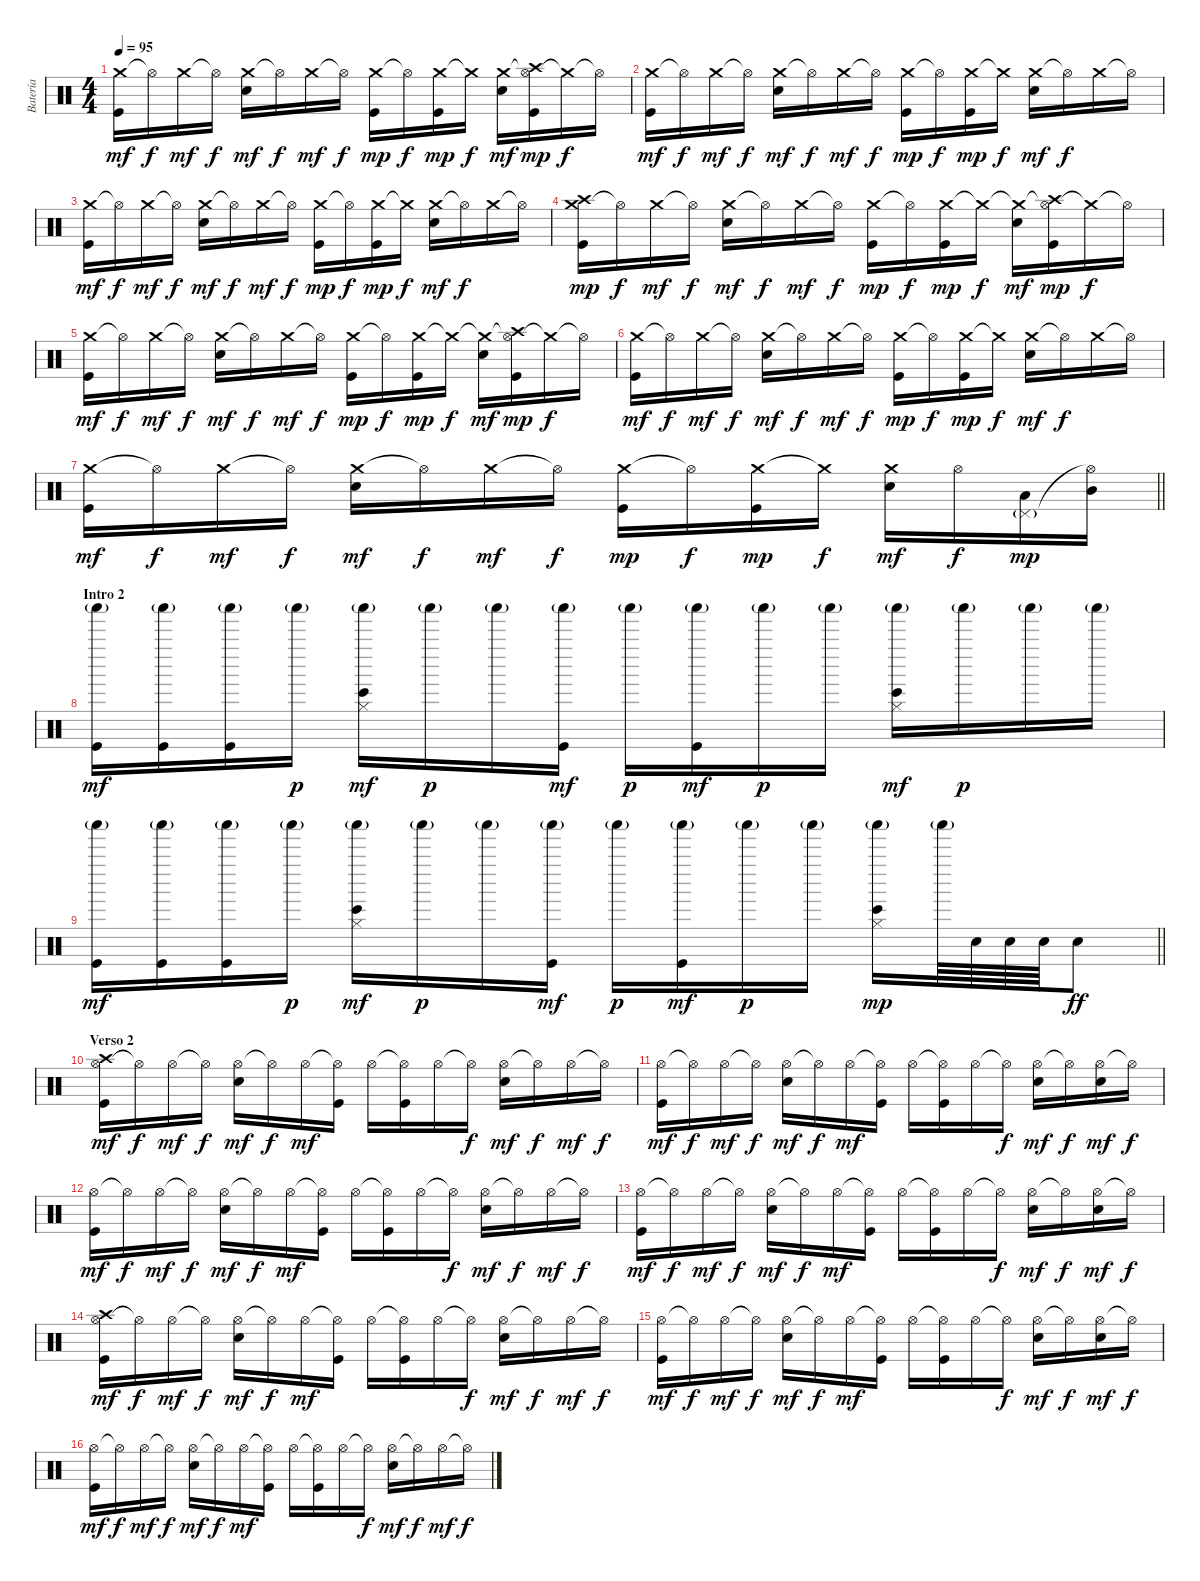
\track ("Batería" "Batería") {instrument percussion}
\staff {score}
\articulation defaults
\ts (4 4)
\tempo 95
\clef neutral
\ks c
("Crash medium (hit)" "Kick (hit)").16{dy mf} "Hi-Hat (open)"{t}.16{dy f} "Crash medium (hit)".16{dy mf} "Hi-Hat (open)"{t}.16{dy f} ("Crash medium (hit)" "Electric Snare (hit)").16{dy mf} "Hi-Hat (open)"{t}.16{dy f} "Crash medium (hit)".16{dy mf} "Hi-Hat (open)"{t}.16{dy f} ("Crash medium (hit)" "Kick (hit)").16{dy mp} "Hi-Hat (open)"{t}.16{dy f} ("Crash medium (hit)" "Kick (hit)").16{dy mp} "Crash medium (hit)"{t}.16{dy f} ("Crash medium (hit)" "Electric Snare (hit)").16{dy mf} ("Hi-Hat (open)"{t} "Kick (hit)" "Crash high (hit)").16{dy mp} "Crash medium (hit)"{t}.16{dy f} "Hi-Hat (open)"{t}.16 |
("Crash medium (hit)" "Kick (hit)").16{dy mf} "Hi-Hat (open)"{t}.16{dy f} "Crash medium (hit)".16{dy mf} "Hi-Hat (open)"{t}.16{dy f} ("Crash medium (hit)" "Electric Snare (hit)").16{dy mf} "Hi-Hat (open)"{t}.16{dy f} "Crash medium (hit)".16{dy mf} "Hi-Hat (open)"{t}.16{dy f} ("Crash medium (hit)" "Kick (hit)").16{dy mp} "Hi-Hat (open)"{t}.16{dy f} ("Crash medium (hit)" "Kick (hit)").16{dy mp} "Crash medium (hit)"{t}.16{dy f} ("Crash medium (hit)" "Electric Snare (hit)").16{dy mf} "Hi-Hat (open)"{t}.16{dy f} "Crash medium (hit)".16 "Hi-Hat (open)"{t}.16 |
("Crash medium (hit)" "Kick (hit)").16{dy mf} "Hi-Hat (open)"{t}.16{dy f} "Crash medium (hit)".16{dy mf} "Hi-Hat (open)"{t}.16{dy f} ("Crash medium (hit)" "Electric Snare (hit)").16{dy mf} "Hi-Hat (open)"{t}.16{dy f} "Crash medium (hit)".16{dy mf} "Hi-Hat (open)"{t}.16{dy f} ("Crash medium (hit)" "Kick (hit)").16{dy mp} "Hi-Hat (open)"{t}.16{dy f} ("Crash medium (hit)" "Kick (hit)").16{dy mp} "Crash medium (hit)"{t}.16{dy f} ("Crash medium (hit)" "Electric Snare (hit)").16{dy mf} "Hi-Hat (open)"{t}.16{dy f} "Crash medium (hit)".16 "Hi-Hat (open)"{t}.16 |
("Crash medium (hit)" "Kick (hit)" "Crash high (hit)").16{dy mp} "Hi-Hat (open)"{t}.16{dy f} "Crash medium (hit)".16{dy mf} "Hi-Hat (open)"{t}.16{dy f} ("Crash medium (hit)" "Electric Snare (hit)").16{dy mf} "Hi-Hat (open)"{t}.16{dy f} "Crash medium (hit)".16{dy mf} "Hi-Hat (open)"{t}.16{dy f} ("Crash medium (hit)" "Kick (hit)").16{dy mp} "Hi-Hat (open)"{t}.16{dy f} ("Crash medium (hit)" "Kick (hit)").16{dy mp} "Crash medium (hit)"{t}.16{dy f} ("Crash medium (hit)"{t} "Electric Snare (hit)").16{dy mf} ("Hi-Hat (open)"{t} "Kick (hit)" "Crash high (hit)").16{dy mp} "Crash medium (hit)"{t}.16{dy f} "Hi-Hat (open)"{t}.16 |
("Crash medium (hit)" "Kick (hit)").16{dy mf} "Hi-Hat (open)"{t}.16{dy f} "Crash medium (hit)".16{dy mf} "Hi-Hat (open)"{t}.16{dy f} ("Crash medium (hit)" "Electric Snare (hit)").16{dy mf} "Hi-Hat (open)"{t}.16{dy f} "Crash medium (hit)".16{dy mf} "Hi-Hat (open)"{t}.16{dy f} ("Crash medium (hit)" "Kick (hit)").16{dy mp} "Hi-Hat (open)"{t}.16{dy f} ("Crash medium (hit)" "Kick (hit)").16{dy mp} "Crash medium (hit)"{t}.16{dy f} ("Crash medium (hit)"{t} "Electric Snare (hit)").16{dy mf} ("Hi-Hat (open)"{t} "Kick (hit)" "Crash high (hit)").16{dy mp} "Crash medium (hit)"{t}.16{dy f} "Hi-Hat (open)"{t}.16 |
("Crash medium (hit)" "Kick (hit)").16{dy mf} "Hi-Hat (open)"{t}.16{dy f} "Crash medium (hit)".16{dy mf} "Hi-Hat (open)"{t}.16{dy f} ("Crash medium (hit)" "Electric Snare (hit)").16{dy mf} "Hi-Hat (open)"{t}.16{dy f} "Crash medium (hit)".16{dy mf} "Hi-Hat (open)"{t}.16{dy f} ("Crash medium (hit)" "Kick (hit)").16{dy mp} "Hi-Hat (open)"{t}.16{dy f} ("Crash medium (hit)" "Kick (hit)").16{dy mp} "Crash medium (hit)"{t}.16{dy f} ("Crash medium (hit)" "Electric Snare (hit)").16{dy mf} "Hi-Hat (open)"{t}.16{dy f} "Crash medium (hit)".16 "Hi-Hat (open)"{t}.16 |
\barLineRight lightlight
("Crash medium (hit)" "Kick (hit)").16{dy mf} "Hi-Hat (open)"{t}.16{dy f} "Crash medium (hit)".16{dy mf} "Hi-Hat (open)"{t}.16{dy f} ("Crash medium (hit)" "Electric Snare (hit)").16{dy mf} "Hi-Hat (open)"{t}.16{dy f} "Crash medium (hit)".16{dy mf} "Hi-Hat (open)"{t}.16{dy f} ("Crash medium (hit)" "Kick (hit)").16{dy mp} "Hi-Hat (open)"{t}.16{dy f} ("Crash medium (hit)" "Kick (hit)").16{dy mp} "Crash medium (hit)"{t}.16{dy f} ("Crash medium (hit)" "Electric Snare (hit)").16{dy mf} "Hi-Hat (open)".16{dy f} ("Pedal Hi-Hat (hit)"{g} "Low Tom (hit)").16{dy mp} ("Hi-Hat (open)"{t} "Mid Tom (hit)").16 |
\section ("" "Intro 2")
("Shaker (hit)"{g} "Kick (hit)").16{dy mf} ("Shaker (hit)"{g} "Kick (hit)").16 ("Shaker (hit)"{g} "Kick (hit)").16 "Shaker (hit)"{g}.16{dy p} ("Shaker (hit)"{g} "Bongo High (hit)" "Hi-Hat (closed)").16{dy mf} "Shaker (hit)"{g}.16{dy p} "Shaker (hit)"{g}.16 ("Shaker (hit)"{g} "Kick (hit)").16{dy mf} "Shaker (hit)"{g}.16{dy p} ("Shaker (hit)"{g} "Kick (hit)").16{dy mf} "Shaker (hit)"{g}.16{dy p} "Shaker (hit)"{g}.16 ("Shaker (hit)"{g} "Bongo High (hit)" "Hi-Hat (closed)").16{dy mf} "Shaker (hit)"{g}.16{dy p} "Shaker (hit)"{g}.16 "Shaker (hit)"{g}.16 |
\barLineRight lightlight
("Shaker (hit)"{g} "Kick (hit)").16{dy mf} ("Shaker (hit)"{g} "Kick (hit)").16 ("Shaker (hit)"{g} "Kick (hit)").16 "Shaker (hit)"{g}.16{dy p} ("Shaker (hit)"{g} "Bongo High (hit)" "Hi-Hat (closed)").16{dy mf} "Shaker (hit)"{g}.16{dy p} "Shaker (hit)"{g}.16 ("Shaker (hit)"{g} "Kick (hit)").16{dy mf} "Shaker (hit)"{g}.16{dy p} ("Shaker (hit)"{g} "Kick (hit)").16{dy mf} "Shaker (hit)"{g}.16{dy p} "Shaker (hit)"{g}.16 ("Shaker (hit)"{g} "Bongo High (hit)" "Hi-Hat (closed)").16{dy mp} "Shaker (hit)"{g}.64 "Electric Snare (hit)".64 "Electric Snare (hit)".64 "Electric Snare (hit)".64 "Electric Snare (hit)".8{dy ff} |
\section ("" "Verso 2")
("Hi-Hat (open)" "Kick (hit)" "Crash high (hit)").16{dy mf} "Hi-Hat (open)"{t}.16{dy f} "Hi-Hat (open)".16{dy mf} "Hi-Hat (open)"{t}.16{dy f} ("Hi-Hat (open)" "Electric Snare (hit)").16{dy mf} "Hi-Hat (open)"{t}.16{dy f} "Hi-Hat (open)".16{dy mf} ("Hi-Hat (open)"{t} "Kick (hit)").16 "Hi-Hat (open)".16 ("Hi-Hat (open)"{t} "Kick (hit)").16 "Hi-Hat (open)".16 "Hi-Hat (open)"{t}.16{dy f} ("Hi-Hat (open)" "Electric Snare (hit)").16{dy mf} "Hi-Hat (open)"{t}.16{dy f} "Hi-Hat (open)".16{dy mf} "Hi-Hat (open)"{t}.16{dy f} |
("Hi-Hat (open)" "Kick (hit)").16{dy mf} "Hi-Hat (open)"{t}.16{dy f} "Hi-Hat (open)".16{dy mf} "Hi-Hat (open)"{t}.16{dy f} ("Hi-Hat (open)" "Electric Snare (hit)").16{dy mf} "Hi-Hat (open)"{t}.16{dy f} "Hi-Hat (open)".16{dy mf} ("Hi-Hat (open)"{t} "Kick (hit)").16 "Hi-Hat (open)".16 ("Hi-Hat (open)"{t} "Kick (hit)").16 "Hi-Hat (open)".16 "Hi-Hat (open)"{t}.16{dy f} ("Hi-Hat (open)" "Electric Snare (hit)").16{dy mf} "Hi-Hat (open)"{t}.16{dy f} ("Hi-Hat (open)" "Electric Snare (hit)").16{dy mf} "Hi-Hat (open)"{t}.16{dy f} |
("Hi-Hat (open)" "Kick (hit)").16{dy mf} "Hi-Hat (open)"{t}.16{dy f} "Hi-Hat (open)".16{dy mf} "Hi-Hat (open)"{t}.16{dy f} ("Hi-Hat (open)" "Electric Snare (hit)").16{dy mf} "Hi-Hat (open)"{t}.16{dy f} "Hi-Hat (open)".16{dy mf} ("Hi-Hat (open)"{t} "Kick (hit)").16 "Hi-Hat (open)".16 ("Hi-Hat (open)"{t} "Kick (hit)").16 "Hi-Hat (open)".16 "Hi-Hat (open)"{t}.16{dy f} ("Hi-Hat (open)" "Electric Snare (hit)").16{dy mf} "Hi-Hat (open)"{t}.16{dy f} "Hi-Hat (open)".16{dy mf} "Hi-Hat (open)"{t}.16{dy f} |
("Hi-Hat (open)" "Kick (hit)").16{dy mf} "Hi-Hat (open)"{t}.16{dy f} "Hi-Hat (open)".16{dy mf} "Hi-Hat (open)"{t}.16{dy f} ("Hi-Hat (open)" "Electric Snare (hit)").16{dy mf} "Hi-Hat (open)"{t}.16{dy f} "Hi-Hat (open)".16{dy mf} ("Hi-Hat (open)"{t} "Kick (hit)").16 "Hi-Hat (open)".16 ("Hi-Hat (open)"{t} "Kick (hit)").16 "Hi-Hat (open)".16 "Hi-Hat (open)"{t}.16{dy f} ("Hi-Hat (open)" "Electric Snare (hit)").16{dy mf} "Hi-Hat (open)"{t}.16{dy f} ("Hi-Hat (open)" "Electric Snare (hit)").16{dy mf} "Hi-Hat (open)"{t}.16{dy f} |
("Hi-Hat (open)" "Kick (hit)" "Crash high (hit)").16{dy mf} "Hi-Hat (open)"{t}.16{dy f} "Hi-Hat (open)".16{dy mf} "Hi-Hat (open)"{t}.16{dy f} ("Hi-Hat (open)" "Electric Snare (hit)").16{dy mf} "Hi-Hat (open)"{t}.16{dy f} "Hi-Hat (open)".16{dy mf} ("Hi-Hat (open)"{t} "Kick (hit)").16 "Hi-Hat (open)".16 ("Hi-Hat (open)"{t} "Kick (hit)").16 "Hi-Hat (open)".16 "Hi-Hat (open)"{t}.16{dy f} ("Hi-Hat (open)" "Electric Snare (hit)").16{dy mf} "Hi-Hat (open)"{t}.16{dy f} "Hi-Hat (open)".16{dy mf} "Hi-Hat (open)"{t}.16{dy f} |
("Hi-Hat (open)" "Kick (hit)").16{dy mf} "Hi-Hat (open)"{t}.16{dy f} "Hi-Hat (open)".16{dy mf} "Hi-Hat (open)"{t}.16{dy f} ("Hi-Hat (open)" "Electric Snare (hit)").16{dy mf} "Hi-Hat (open)"{t}.16{dy f} "Hi-Hat (open)".16{dy mf} ("Hi-Hat (open)"{t} "Kick (hit)").16 "Hi-Hat (open)".16 ("Hi-Hat (open)"{t} "Kick (hit)").16 "Hi-Hat (open)".16 "Hi-Hat (open)"{t}.16{dy f} ("Hi-Hat (open)" "Electric Snare (hit)").16{dy mf} "Hi-Hat (open)"{t}.16{dy f} ("Hi-Hat (open)" "Electric Snare (hit)").16{dy mf} "Hi-Hat (open)"{t}.16{dy f} |
("Hi-Hat (open)" "Kick (hit)").16{dy mf} "Hi-Hat (open)"{t}.16{dy f} "Hi-Hat (open)".16{dy mf} "Hi-Hat (open)"{t}.16{dy f} ("Hi-Hat (open)" "Electric Snare (hit)").16{dy mf} "Hi-Hat (open)"{t}.16{dy f} "Hi-Hat (open)".16{dy mf} ("Hi-Hat (open)"{t} "Kick (hit)").16 "Hi-Hat (open)".16 ("Hi-Hat (open)"{t} "Kick (hit)").16 "Hi-Hat (open)".16 "Hi-Hat (open)"{t}.16{dy f} ("Hi-Hat (open)" "Electric Snare (hit)").16{dy mf} "Hi-Hat (open)"{t}.16{dy f} "Hi-Hat (open)".16{dy mf} "Hi-Hat (open)"{t}.16{dy f}
